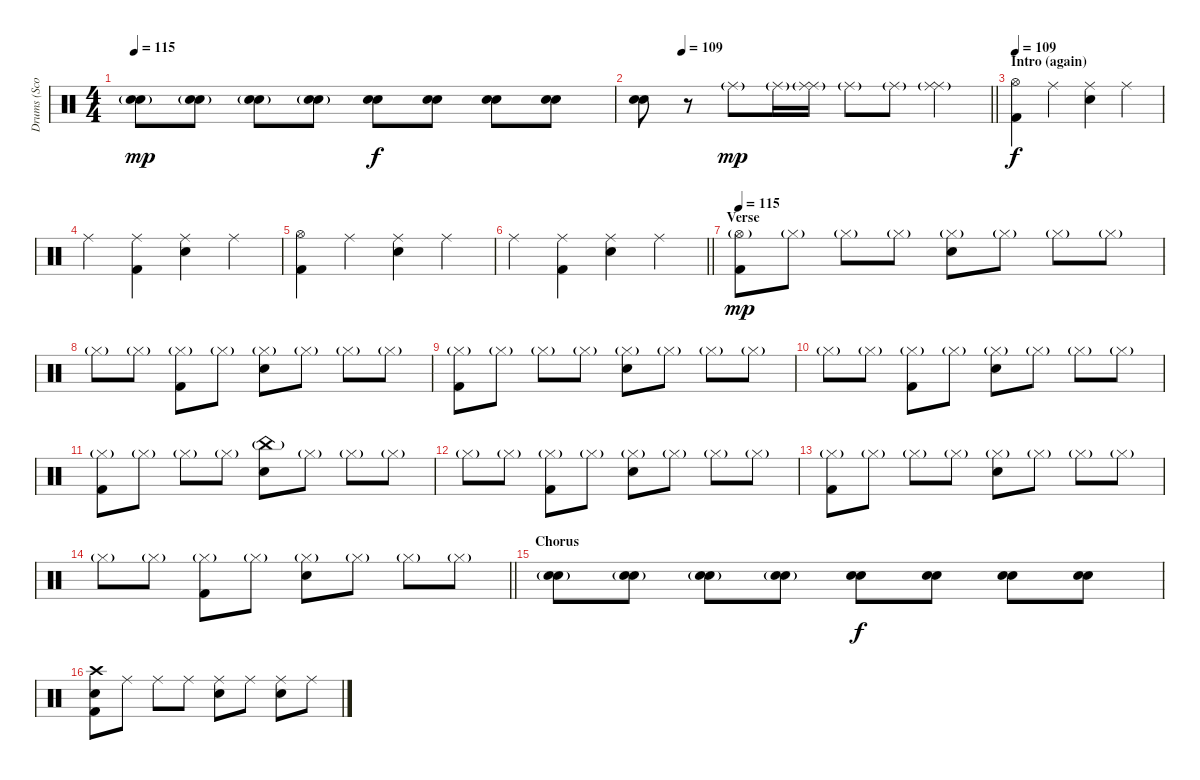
\track ("Drums (Scott Raynor)" "Drums (Sco") {instrument percussion}
\staff {score}
\articulation defaults
\ts (4 4)
\tempo 115
\clef neutral
\ks c
("Snare (hit) 2"{g} "Snare (hit) 2"{g}).8{dy mp} ("Snare (hit) 2"{g} "Snare (hit) 2"{g}).8 ("Snare (hit) 2" "Snare (hit) 2"{g}).8 ("Snare (hit) 2" "Snare (hit) 2"{g}).8 ("Snare (hit) 2" "Snare (hit) 2").8{dy f} ("Snare (hit) 2" "Snare (hit) 2").8 ("Snare (hit) 2" "Snare (hit) 2").8 ("Snare (hit) 2" "Snare (hit) 2").8 |
\tempo (109 0.125)
\barLineRight lightlight
("Snare (hit) 2" "Snare (hit) 2").8 r.8 "Ride (middle)"{g}.8{dy mp} "Ride (middle)"{g}.16 ("Ride (middle)"{g} "Ride (middle)").16 "Ride (middle)"{g}.8 "Ride (middle)"{g}.8 ("Ride (middle)"{g} "Ride (middle)").4 |
\section ("" "Intro (again)")
\tempo 109
("Hi-Hat (open)" "Kick (hit) 2").4{dy f} "Ride (middle)".4 ("Ride (middle)" "Snare (hit) 2").4 "Ride (middle)".4 |
"Ride (middle)".4 ("Ride (middle)" "Kick (hit) 2").4 ("Ride (middle)" "Snare (hit) 2").4 "Ride (middle)".4 |
("Hi-Hat (open)" "Kick (hit) 2").4 "Ride (middle)".4 ("Ride (middle)" "Snare (hit) 2").4 "Ride (middle)".4 |
\barLineRight lightlight "Ride (middle)".4
("Ride (middle)" "Kick (hit) 2").4 ("Ride (middle)" "Snare (hit) 2").4 "Ride (middle)".4 |
\section ("" "Verse")
\tempo 115
("Hi-Hat (open)"{g} "Kick (hit) 2").8{dy mp} "Hi-Hat (closed)"{g}.8 "Hi-Hat (closed)"{g}.8 "Hi-Hat (closed)"{g}.8 ("Hi-Hat (closed)"{g} "Snare (hit) 2").8 "Hi-Hat (closed)"{g}.8 "Hi-Hat (closed)"{g}.8 "Hi-Hat (closed)"{g}.8 |
"Hi-Hat (closed)"{g}.8 "Hi-Hat (closed)"{g}.8 ("Hi-Hat (closed)"{g} "Kick (hit) 2").8 "Hi-Hat (closed)"{g}.8 ("Hi-Hat (closed)"{g} "Snare (hit) 2").8 "Hi-Hat (closed)"{g}.8 "Hi-Hat (closed)"{g}.8 "Hi-Hat (closed)"{g}.8 |
("Hi-Hat (closed)"{g} "Kick (hit) 2").8 "Hi-Hat (closed)"{g}.8 "Hi-Hat (closed)"{g}.8 "Hi-Hat (closed)"{g}.8 ("Hi-Hat (closed)"{g} "Snare (hit) 2").8 "Hi-Hat (closed)"{g}.8 "Hi-Hat (closed)"{g}.8 "Hi-Hat (closed)"{g}.8 |
"Hi-Hat (closed)"{g}.8 "Hi-Hat (closed)"{g}.8 ("Hi-Hat (closed)"{g} "Kick (hit) 2").8 "Hi-Hat (closed)"{g}.8 ("Hi-Hat (closed)"{g} "Snare (hit) 2").8 "Hi-Hat (closed)"{g}.8 "Hi-Hat (closed)"{g}.8 "Hi-Hat (closed)"{g}.8 |
("Hi-Hat (closed)"{g} "Kick (hit) 2").8 "Hi-Hat (closed)"{g}.8 "Hi-Hat (closed)"{g}.8 "Hi-Hat (closed)"{g}.8 ("China (hit)"{g} "Snare (hit) 2").8 "Hi-Hat (closed)"{g}.8 "Hi-Hat (closed)"{g}.8 "Hi-Hat (closed)"{g}.8 |
"Hi-Hat (closed)"{g}.8 "Hi-Hat (closed)"{g}.8 ("Hi-Hat (closed)"{g} "Kick (hit) 2").8 "Hi-Hat (closed)"{g}.8 ("Hi-Hat (closed)"{g} "Snare (hit) 2").8 "Hi-Hat (closed)"{g}.8 "Hi-Hat (closed)"{g}.8 "Hi-Hat (closed)"{g}.8 |
("Hi-Hat (closed)"{g} "Kick (hit) 2").8 "Hi-Hat (closed)"{g}.8 "Hi-Hat (closed)"{g}.8 "Hi-Hat (closed)"{g}.8 ("Hi-Hat (closed)"{g} "Snare (hit) 2").8 "Hi-Hat (closed)"{g}.8 "Hi-Hat (closed)"{g}.8 "Hi-Hat (closed)"{g}.8 |
\barLineRight lightlight "Hi-Hat (closed)"{g}.8 "Hi-Hat (closed)"{g}.8
("Hi-Hat (closed)"{g} "Kick (hit) 2").8 "Hi-Hat (closed)"{g}.8 ("Hi-Hat (closed)"{g} "Snare (hit) 2").8 "Hi-Hat (closed)"{g}.8 "Hi-Hat (closed)"{g}.8 "Hi-Hat (closed)"{g}.8 |
\section ("" "Chorus")
("Snare (hit) 2"{g} "Snare (hit) 2"{g}).8 ("Snare (hit) 2"{g} "Snare (hit) 2"{g}).8 ("Snare (hit) 2" "Snare (hit) 2"{g}).8 ("Snare (hit) 2" "Snare (hit) 2"{g}).8 ("Snare (hit) 2" "Snare (hit) 2").8{dy f} ("Snare (hit) 2" "Snare (hit) 2").8 ("Snare (hit) 2" "Snare (hit) 2").8 ("Snare (hit) 2" "Snare (hit) 2").8 |
("Crash high (hit)" "Snare (hit) 2" "Kick (hit) 2").8 "Ride (middle)".8 "Ride (middle)".8 "Ride (middle)".8 ("Ride (middle)" "Snare (hit) 2").8 "Ride (middle)".8 ("Ride (middle)" "Snare (hit) 2").8 "Ride (middle)".8
